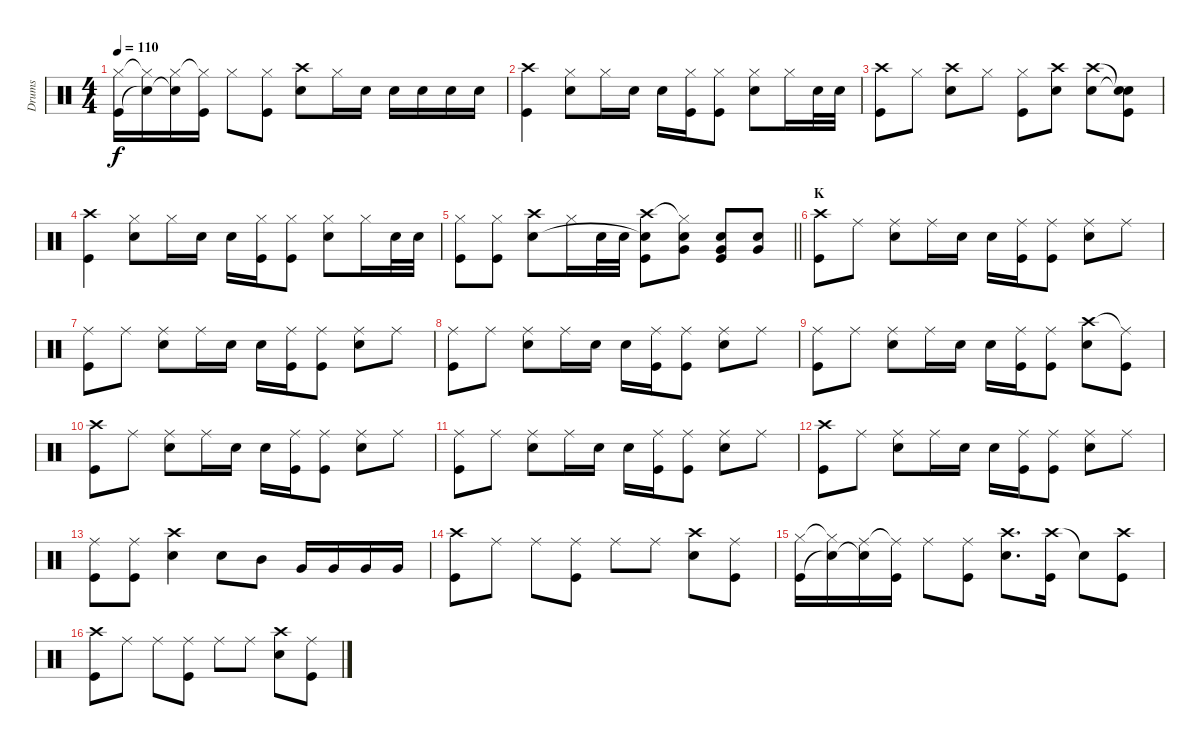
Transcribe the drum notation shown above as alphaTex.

\track ("Drums" "Drums") {instrument percussion}
\staff {score}
\articulation defaults
\ts (4 4)
\tempo 110
\clef neutral
\ks c
("Hi-Hat (closed)" "Kick (hit)").16{dy f} ("Hi-Hat (closed)"{t} "Snare (hit)"{t}).16 ("Hi-Hat (closed)" "Snare (hit)"{t}).16 ("Hi-Hat (closed)"{t} "Kick (hit)").16 "Hi-Hat (closed)".8 ("Hi-Hat (closed)" "Kick (hit)").8 ("Crash high (hit)" "Snare (hit) 2").8 "Hi-Hat (closed)".16 "Snare (hit) 2".16 "Snare (hit) 2".16 "Snare (hit) 2".16 "Snare (hit) 2".16 "Snare (hit) 2".16 |
("Crash high (hit)" "Kick (hit)").4 ("Hi-Hat (closed)" "Snare (hit) 2").8 "Hi-Hat (closed)".16 "Snare (hit) 2".16 "Snare (hit) 2".16 ("Hi-Hat (closed)" "Kick (hit)").16 ("Hi-Hat (closed)" "Kick (hit)").8 ("Hi-Hat (closed)" "Snare (hit) 2").8 "Hi-Hat (closed)".16 "Snare (hit) 2".32 "Snare (hit) 2".32 |
("Crash high (hit)" "Kick (hit)").8 "Hi-Hat (closed)".8 ("Crash high (hit)" "Snare (hit) 2").8 "Hi-Hat (closed)".8 ("Hi-Hat (closed)" "Kick (hit)").8 ("Crash high (hit)" "Snare (hit) 2").8 ("Crash high (hit)" "Snare (hit) 2").8 ("Snare (hit)"{t} "Snare (hit) 2"{t} "Kick (hit)").8 |
("Crash high (hit)" "Kick (hit)").4 ("Hi-Hat (closed)" "Snare (hit) 2").8 "Hi-Hat (closed)".16 "Snare (hit) 2".16 "Snare (hit) 2".16 ("Hi-Hat (closed)" "Kick (hit)").16 ("Hi-Hat (closed)" "Kick (hit)").8 ("Hi-Hat (closed)" "Snare (hit) 2").8 "Hi-Hat (closed)".16 "Snare (hit) 2".32 "Snare (hit) 2".32 |
\barLineRight lightlight
("Hi-Hat (closed)" "Kick (hit)").8 ("Hi-Hat (closed)" "Kick (hit)").8 ("Crash high (hit)" "Snare (hit) 2").8 "Hi-Hat (closed)".16 "Snare (hit) 2".32 "Snare (hit) 2".32 ("Crash high (hit)" "Snare (hit) 2"{t} "Kick (hit)").8 ("Hi-Hat (closed)"{t} "Snare (hit) 2" "Very Low Tom (hit)").8 ("Snare (hit) 2" "Very Low Tom (hit)" "Kick (hit)").8 ("Snare (hit) 2" "Very Low Tom (hit)").8 |
\section ("" "K")
("Crash high (hit)" "Kick (hit)").8 "Ride (middle)".8 ("Ride (middle)" "Snare (hit) 2").8 "Ride (middle)".16 "Snare (hit) 2".16 "Snare (hit) 2".16 ("Ride (middle)" "Kick (hit)").16 ("Ride (middle)" "Kick (hit)").8 ("Ride (middle)" "Snare (hit) 2").8 "Ride (middle)".8 |
("Ride (middle)" "Kick (hit)").8 "Ride (middle)".8 ("Ride (middle)" "Snare (hit) 2").8 "Ride (middle)".16 "Snare (hit) 2".16 "Snare (hit) 2".16 ("Ride (middle)" "Kick (hit)").16 ("Ride (middle)" "Kick (hit)").8 ("Ride (middle)" "Snare (hit) 2").8 "Ride (middle)".8 |
("Ride (middle)" "Kick (hit)").8 "Ride (middle)".8 ("Ride (middle)" "Snare (hit) 2").8 "Ride (middle)".16 "Snare (hit) 2".16 "Snare (hit) 2".16 ("Ride (middle)" "Kick (hit)").16 ("Ride (middle)" "Kick (hit)").8 ("Ride (middle)" "Snare (hit) 2").8 "Ride (middle)".8 |
("Ride (middle)" "Kick (hit)").8 "Ride (middle)".8 ("Ride (middle)" "Snare (hit) 2").8 "Ride (middle)".16 "Snare (hit) 2".16 "Snare (hit) 2".16 ("Ride (middle)" "Kick (hit)").16 ("Ride (middle)" "Kick (hit)").8 ("Crash high (hit)" "Snare (hit) 2").8 ("Ride (middle)"{t} "Kick (hit)").8 |
("Crash high (hit)" "Kick (hit)").8 "Ride (middle)".8 ("Ride (middle)" "Snare (hit) 2").8 "Ride (middle)".16 "Snare (hit) 2".16 "Snare (hit) 2".16 ("Ride (middle)" "Kick (hit)").16 ("Ride (middle)" "Kick (hit)").8 ("Ride (middle)" "Snare (hit) 2").8 "Ride (middle)".8 |
("Ride (middle)" "Kick (hit)").8 "Ride (middle)".8 ("Ride (middle)" "Snare (hit) 2").8 "Ride (middle)".16 "Snare (hit) 2".16 "Snare (hit) 2".16 ("Ride (middle)" "Kick (hit)").16 ("Ride (middle)" "Kick (hit)").8 ("Ride (middle)" "Snare (hit) 2").8 "Ride (middle)".8 |
("Crash high (hit)" "Kick (hit)").8 "Ride (middle)".8 ("Ride (middle)" "Snare (hit) 2").8 "Ride (middle)".16 "Snare (hit) 2".16 "Snare (hit) 2".16 ("Ride (middle)" "Kick (hit)").16 ("Ride (middle)" "Kick (hit)").8 ("Ride (middle)" "Snare (hit) 2").8 "Ride (middle)".8 |
("Ride (middle)" "Kick (hit)").8 ("Ride (middle)" "Kick (hit)").8 ("Crash high (hit)" "Snare (hit) 2").4 "Snare (hit) 2".8 "Mid Tom (hit)".8 "Very Low Tom (hit)".16 "Very Low Tom (hit)".16 "Very Low Tom (hit)".16 "Very Low Tom (hit)".16 |
("Crash high (hit)" "Kick (hit)").8 "Ride (middle)".8 "Ride (middle)".8 ("Ride (middle)" "Kick (hit)").8 "Ride (middle)".8 "Ride (middle)".8 ("Crash high (hit)" "Snare (hit) 2").8 ("Ride (middle)" "Kick (hit)").8 |
("Hi-Hat (closed)" "Kick (hit)").16 ("Hi-Hat (closed)"{t} "Snare (hit)"{t}).16 ("Ride (middle)" "Snare (hit)"{t}).16 ("Ride (middle)"{t} "Kick (hit)").16 "Ride (middle)".8 ("Ride (middle)" "Kick (hit)").8 ("Crash high (hit)" "Snare (hit) 2").8{d} ("Crash high (hit)" "Kick (hit)").16 "Snare (hit)"{t}.8 ("Crash high (hit)" "Kick (hit)").8 |
("Crash high (hit)" "Kick (hit)").8 "Ride (middle)".8 "Ride (middle)".8 ("Ride (middle)" "Kick (hit)").8 "Ride (middle)".8 "Ride (middle)".8 ("Crash high (hit)" "Snare (hit) 2").8 ("Ride (middle)" "Kick (hit)").8
